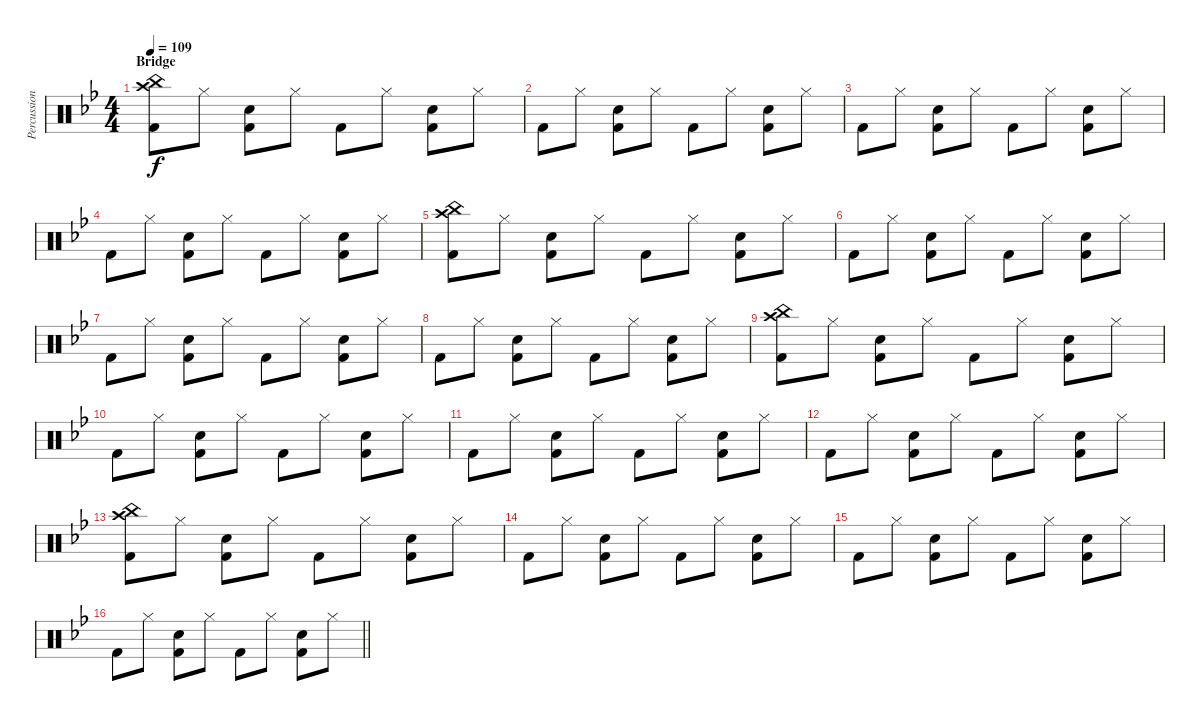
\track ("Percussions" "Percussion") {instrument percussion}
\staff {score}
\articulation defaults
\ts (4 4)
\section ("" "Bridge")
\tempo 109
\clef neutral
\ks bb
("China (hit)" "Crash high (hit)" "Kick (hit) 2").8{dy f} "Hi-Hat (closed)".8 ("Snare (hit) 2" "Kick (hit) 2").8 "Hi-Hat (closed)".8 "Kick (hit) 2".8 "Hi-Hat (closed)".8 ("Snare (hit) 2" "Kick (hit) 2").8 "Hi-Hat (closed)".8 |
"Kick (hit) 2".8 "Hi-Hat (closed)".8 ("Snare (hit) 2" "Kick (hit) 2").8 "Hi-Hat (closed)".8 "Kick (hit) 2".8 "Hi-Hat (closed)".8 ("Snare (hit) 2" "Kick (hit) 2").8 "Hi-Hat (closed)".8 |
"Kick (hit) 2".8 "Hi-Hat (closed)".8 ("Snare (hit) 2" "Kick (hit) 2").8 "Hi-Hat (closed)".8 "Kick (hit) 2".8 "Hi-Hat (closed)".8 ("Snare (hit) 2" "Kick (hit) 2").8 "Hi-Hat (closed)".8 |
"Kick (hit) 2".8 "Hi-Hat (closed)".8 ("Snare (hit) 2" "Kick (hit) 2").8 "Hi-Hat (closed)".8 "Kick (hit) 2".8 "Hi-Hat (closed)".8 ("Snare (hit) 2" "Kick (hit) 2").8 "Hi-Hat (closed)".8 |
("China (hit)" "Crash high (hit)" "Kick (hit) 2").8 "Hi-Hat (closed)".8 ("Snare (hit) 2" "Kick (hit) 2").8 "Hi-Hat (closed)".8 "Kick (hit) 2".8 "Hi-Hat (closed)".8 ("Snare (hit) 2" "Kick (hit) 2").8 "Hi-Hat (closed)".8 |
"Kick (hit) 2".8 "Hi-Hat (closed)".8 ("Snare (hit) 2" "Kick (hit) 2").8 "Hi-Hat (closed)".8 "Kick (hit) 2".8 "Hi-Hat (closed)".8 ("Snare (hit) 2" "Kick (hit) 2").8 "Hi-Hat (closed)".8 |
"Kick (hit) 2".8 "Hi-Hat (closed)".8 ("Snare (hit) 2" "Kick (hit) 2").8 "Hi-Hat (closed)".8 "Kick (hit) 2".8 "Hi-Hat (closed)".8 ("Snare (hit) 2" "Kick (hit) 2").8 "Hi-Hat (closed)".8 |
"Kick (hit) 2".8 "Hi-Hat (closed)".8 ("Snare (hit) 2" "Kick (hit) 2").8 "Hi-Hat (closed)".8 "Kick (hit) 2".8 "Hi-Hat (closed)".8 ("Snare (hit) 2" "Kick (hit) 2").8 "Hi-Hat (closed)".8 |
("China (hit)" "Crash high (hit)" "Kick (hit) 2").8 "Hi-Hat (closed)".8 ("Snare (hit) 2" "Kick (hit) 2").8 "Hi-Hat (closed)".8 "Kick (hit) 2".8 "Hi-Hat (closed)".8 ("Snare (hit) 2" "Kick (hit) 2").8 "Hi-Hat (closed)".8 |
"Kick (hit) 2".8 "Hi-Hat (closed)".8 ("Snare (hit) 2" "Kick (hit) 2").8 "Hi-Hat (closed)".8 "Kick (hit) 2".8 "Hi-Hat (closed)".8 ("Snare (hit) 2" "Kick (hit) 2").8 "Hi-Hat (closed)".8 |
"Kick (hit) 2".8 "Hi-Hat (closed)".8 ("Snare (hit) 2" "Kick (hit) 2").8 "Hi-Hat (closed)".8 "Kick (hit) 2".8 "Hi-Hat (closed)".8 ("Snare (hit) 2" "Kick (hit) 2").8 "Hi-Hat (closed)".8 |
"Kick (hit) 2".8 "Hi-Hat (closed)".8 ("Snare (hit) 2" "Kick (hit) 2").8 "Hi-Hat (closed)".8 "Kick (hit) 2".8 "Hi-Hat (closed)".8 ("Snare (hit) 2" "Kick (hit) 2").8 "Hi-Hat (closed)".8 |
("China (hit)" "Crash high (hit)" "Kick (hit) 2").8 "Hi-Hat (closed)".8 ("Snare (hit) 2" "Kick (hit) 2").8 "Hi-Hat (closed)".8 "Kick (hit) 2".8 "Hi-Hat (closed)".8 ("Snare (hit) 2" "Kick (hit) 2").8 "Hi-Hat (closed)".8 |
"Kick (hit) 2".8 "Hi-Hat (closed)".8 ("Snare (hit) 2" "Kick (hit) 2").8 "Hi-Hat (closed)".8 "Kick (hit) 2".8 "Hi-Hat (closed)".8 ("Snare (hit) 2" "Kick (hit) 2").8 "Hi-Hat (closed)".8 |
"Kick (hit) 2".8 "Hi-Hat (closed)".8 ("Snare (hit) 2" "Kick (hit) 2").8 "Hi-Hat (closed)".8 "Kick (hit) 2".8 "Hi-Hat (closed)".8 ("Snare (hit) 2" "Kick (hit) 2").8 "Hi-Hat (closed)".8 |
\barLineRight lightlight "Kick (hit) 2".8 "Hi-Hat (closed)".8
("Snare (hit) 2" "Kick (hit) 2").8 "Hi-Hat (closed)".8 "Kick (hit) 2".8 "Hi-Hat (closed)".8 ("Snare (hit) 2" "Kick (hit) 2").8 "Hi-Hat (closed)".8
